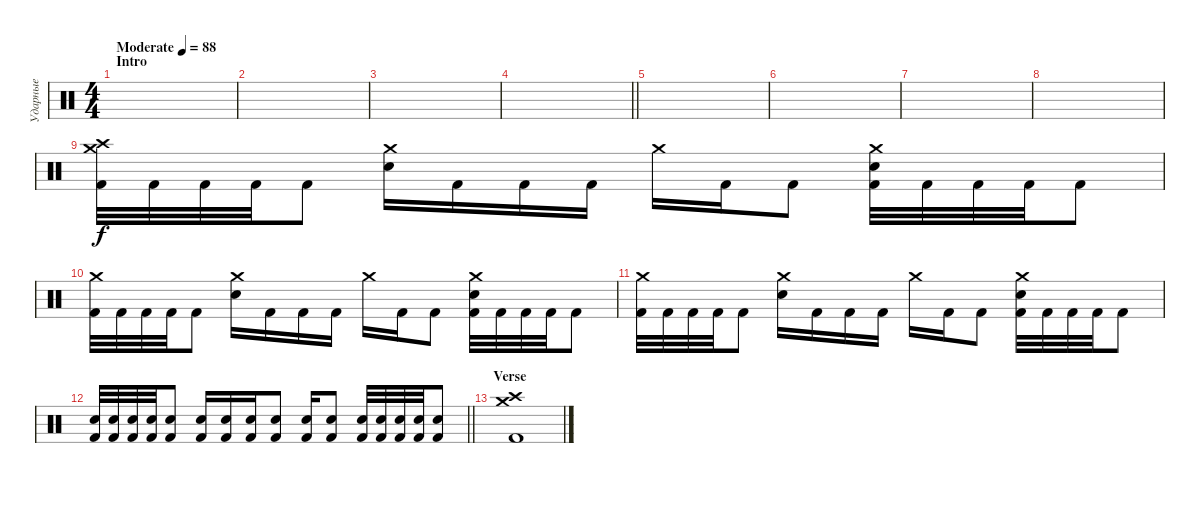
\track ("Ударные" "Ударные") {instrument percussion}
\staff {score}
\articulation defaults
\ts (4 4)
\section ("" "Intro")
\tempo (88 "Moderate")
\clef neutral
\ks c
|
|
|
\barLineRight lightlight
|
\section ("" "")
|
|
|
|
("Crash medium (hit)" "Crash high (hit)" "Kick (hit) 2").32 "Kick (hit) 2".32 "Kick (hit) 2".32 "Kick (hit) 2".32 "Kick (hit) 2".8 ("Crash medium (hit)" "Electric Snare (hit)").16 "Kick (hit) 2".16 "Kick (hit) 2".16 "Kick (hit) 2".16 "Crash medium (hit)".16 "Kick (hit) 2".16 "Kick (hit) 2".8 ("Crash medium (hit)" "Electric Snare (hit)" "Kick (hit) 2").32 "Kick (hit) 2".32 "Kick (hit) 2".32 "Kick (hit) 2".32 "Kick (hit) 2".8 |
("Crash medium (hit)" "Kick (hit) 2").32 "Kick (hit) 2".32 "Kick (hit) 2".32 "Kick (hit) 2".32 "Kick (hit) 2".8 ("Crash medium (hit)" "Electric Snare (hit)").16 "Kick (hit) 2".16 "Kick (hit) 2".16 "Kick (hit) 2".16 "Crash medium (hit)".16 "Kick (hit) 2".16 "Kick (hit) 2".8 ("Crash medium (hit)" "Electric Snare (hit)" "Kick (hit) 2").32 "Kick (hit) 2".32 "Kick (hit) 2".32 "Kick (hit) 2".32 "Kick (hit) 2".8 |
("Crash medium (hit)" "Kick (hit) 2").32 "Kick (hit) 2".32 "Kick (hit) 2".32 "Kick (hit) 2".32 "Kick (hit) 2".8 ("Crash medium (hit)" "Electric Snare (hit)").16 "Kick (hit) 2".16 "Kick (hit) 2".16 "Kick (hit) 2".16 "Crash medium (hit)".16 "Kick (hit) 2".16 "Kick (hit) 2".8 ("Crash medium (hit)" "Electric Snare (hit)" "Kick (hit) 2").32 "Kick (hit) 2".32 "Kick (hit) 2".32 "Kick (hit) 2".32 "Kick (hit) 2".8 |
\barLineRight lightlight
("Electric Snare (hit)" "Kick (hit) 2").32 ("Electric Snare (hit)" "Kick (hit) 2").32 ("Electric Snare (hit)" "Kick (hit) 2").32 ("Electric Snare (hit)" "Kick (hit) 2").32 ("Electric Snare (hit)" "Kick (hit) 2").8 ("Electric Snare (hit)" "Kick (hit) 2").16 ("Electric Snare (hit)" "Kick (hit) 2").16 ("Electric Snare (hit)" "Kick (hit) 2").16 ("Electric Snare (hit)" "Kick (hit) 2").8 ("Electric Snare (hit)" "Kick (hit) 2").16 ("Electric Snare (hit)" "Kick (hit) 2").8 ("Electric Snare (hit)" "Kick (hit) 2").32 ("Electric Snare (hit)" "Kick (hit) 2").32 ("Electric Snare (hit)" "Kick (hit) 2").32 ("Electric Snare (hit)" "Kick (hit) 2").32 ("Electric Snare (hit)" "Kick (hit) 2").8 |
\section ("" "Verse")
("Crash high (hit)" "Crash medium (hit)" "Kick (hit) 2").1
